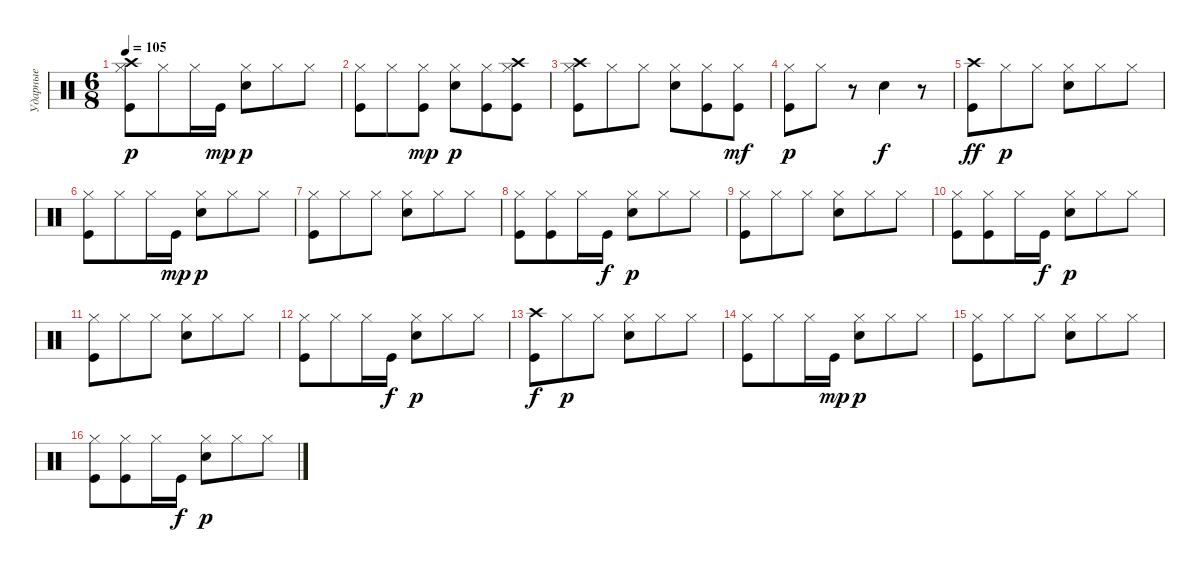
\track ("Ударные" "Ударные") {instrument percussion}
\staff {score}
\articulation defaults
\ts (6 8)
\tempo 105
\clef neutral
\ks c
("Crash high (hit)" "Hi-Hat (closed)" "Kick (hit)").8{dy p} "Hi-Hat (closed)".8 "Hi-Hat (closed)".16 "Kick (hit)".16{dy mp} ("Hi-Hat (closed)" "Electric Snare (hit)").8{dy p} "Hi-Hat (closed)".8 "Hi-Hat (closed)".8 |
("Hi-Hat (closed)" "Kick (hit)").8 "Hi-Hat (closed)".8 ("Hi-Hat (closed)" "Kick (hit)").8{dy mp} ("Hi-Hat (closed)" "Electric Snare (hit)").8{dy p} ("Hi-Hat (closed)" "Kick (hit)").8 ("Crash high (hit)" "Hi-Hat (closed)" "Kick (hit)").8 |
("Crash high (hit)" "Hi-Hat (closed)" "Kick (hit)").8 "Hi-Hat (closed)".8 "Hi-Hat (closed)".8 ("Hi-Hat (closed)" "Electric Snare (hit)").8 ("Hi-Hat (closed)" "Kick (hit)").8 ("Hi-Hat (closed)" "Kick (hit)").8{dy mf} |
("Hi-Hat (closed)" "Kick (hit)").8{dy p} "Hi-Hat (closed)".8 r.8 "Electric Snare (hit)".4{dy f} r.8 |
("Crash high (hit)" "Kick (hit)").8{dy ff} "Hi-Hat (closed)".8{dy p} "Hi-Hat (closed)".8 ("Electric Snare (hit)" "Hi-Hat (closed)").8 "Hi-Hat (closed)".8 "Hi-Hat (closed)".8 |
("Kick (hit)" "Hi-Hat (closed)").8 "Hi-Hat (closed)".8 "Hi-Hat (closed)".16 "Kick (hit)".16{dy mp} ("Electric Snare (hit)" "Hi-Hat (closed)").8{dy p} "Hi-Hat (closed)".8 "Hi-Hat (closed)".8 |
("Kick (hit)" "Hi-Hat (closed)").8 "Hi-Hat (closed)".8 "Hi-Hat (closed)".8 ("Electric Snare (hit)" "Hi-Hat (closed)").8 "Hi-Hat (closed)".8 "Hi-Hat (closed)".8 |
("Kick (hit)" "Hi-Hat (closed)").8 ("Kick (hit)" "Hi-Hat (closed)").8 "Hi-Hat (closed)".16 "Kick (hit)".16{dy f} ("Electric Snare (hit)" "Hi-Hat (closed)").8{dy p} "Hi-Hat (closed)".8 "Hi-Hat (closed)".8 |
("Kick (hit)" "Hi-Hat (closed)").8 "Hi-Hat (closed)".8 "Hi-Hat (closed)".8 ("Electric Snare (hit)" "Hi-Hat (closed)").8 "Hi-Hat (closed)".8 "Hi-Hat (closed)".8 |
("Hi-Hat (closed)" "Kick (hit)").8 ("Hi-Hat (closed)" "Kick (hit)").8 "Hi-Hat (closed)".16 "Kick (hit)".16{dy f} ("Hi-Hat (closed)" "Electric Snare (hit)").8{dy p} "Hi-Hat (closed)".8 "Hi-Hat (closed)".8 |
("Hi-Hat (closed)" "Kick (hit)").8 "Hi-Hat (closed)".8 "Hi-Hat (closed)".8 ("Hi-Hat (closed)" "Electric Snare (hit)").8 "Hi-Hat (closed)".8 "Hi-Hat (closed)".8 |
("Hi-Hat (closed)" "Kick (hit)").8 "Hi-Hat (closed)".8 "Hi-Hat (closed)".16 "Kick (hit)".16{dy f} ("Hi-Hat (closed)" "Electric Snare (hit)").8{dy p} "Hi-Hat (closed)".8 "Hi-Hat (closed)".8 |
("Crash high (hit)" "Kick (hit)").8{dy f} "Hi-Hat (closed)".8{dy p} "Hi-Hat (closed)".8 ("Electric Snare (hit)" "Hi-Hat (closed)").8 "Hi-Hat (closed)".8 "Hi-Hat (closed)".8 |
("Kick (hit)" "Hi-Hat (closed)").8 "Hi-Hat (closed)".8 "Hi-Hat (closed)".16 "Kick (hit)".16{dy mp} ("Electric Snare (hit)" "Hi-Hat (closed)").8{dy p} "Hi-Hat (closed)".8 "Hi-Hat (closed)".8 |
("Kick (hit)" "Hi-Hat (closed)").8 "Hi-Hat (closed)".8 "Hi-Hat (closed)".8 ("Electric Snare (hit)" "Hi-Hat (closed)").8 "Hi-Hat (closed)".8 "Hi-Hat (closed)".8 |
("Kick (hit)" "Hi-Hat (closed)").8 ("Kick (hit)" "Hi-Hat (closed)").8 "Hi-Hat (closed)".16 "Kick (hit)".16{dy f} ("Electric Snare (hit)" "Hi-Hat (closed)").8{dy p} "Hi-Hat (closed)".8 "Hi-Hat (closed)".8
